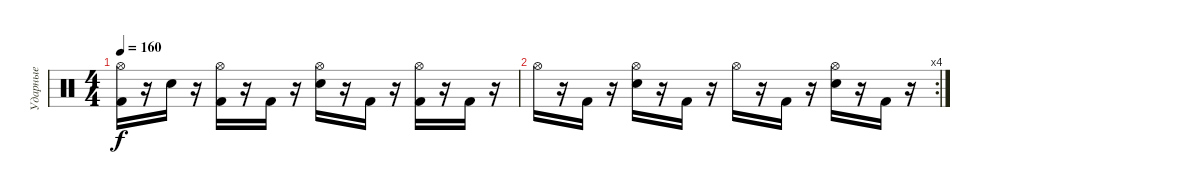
\track ("Ударные" "Ударные") {instrument percussion}
\staff {score}
\articulation defaults
\ts (4 4)
\tempo 160
\clef neutral
\ks c
("Hi-Hat (open)" "Kick (hit) 2").16{dy f} r.16 "Electric Snare (hit)".16 r.16 ("Hi-Hat (open)" "Kick (hit) 2").16 r.16 "Kick (hit) 2".16 r.16 ("Hi-Hat (open)" "Electric Snare (hit)").16 r.16 "Kick (hit) 2".16 r.16 ("Hi-Hat (open)" "Kick (hit) 2").16 r.16 "Kick (hit) 2".16 r.16 |
\rc 4 "Hi-Hat (open)".16
r.16 "Kick (hit) 2".16 r.16 ("Hi-Hat (open)" "Electric Snare (hit)").16 r.16 "Kick (hit) 2".16 r.16 "Hi-Hat (open)".16 r.16 "Kick (hit) 2".16 r.16 ("Hi-Hat (open)" "Electric Snare (hit)").16 r.16 "Kick (hit) 2".16 r.16
